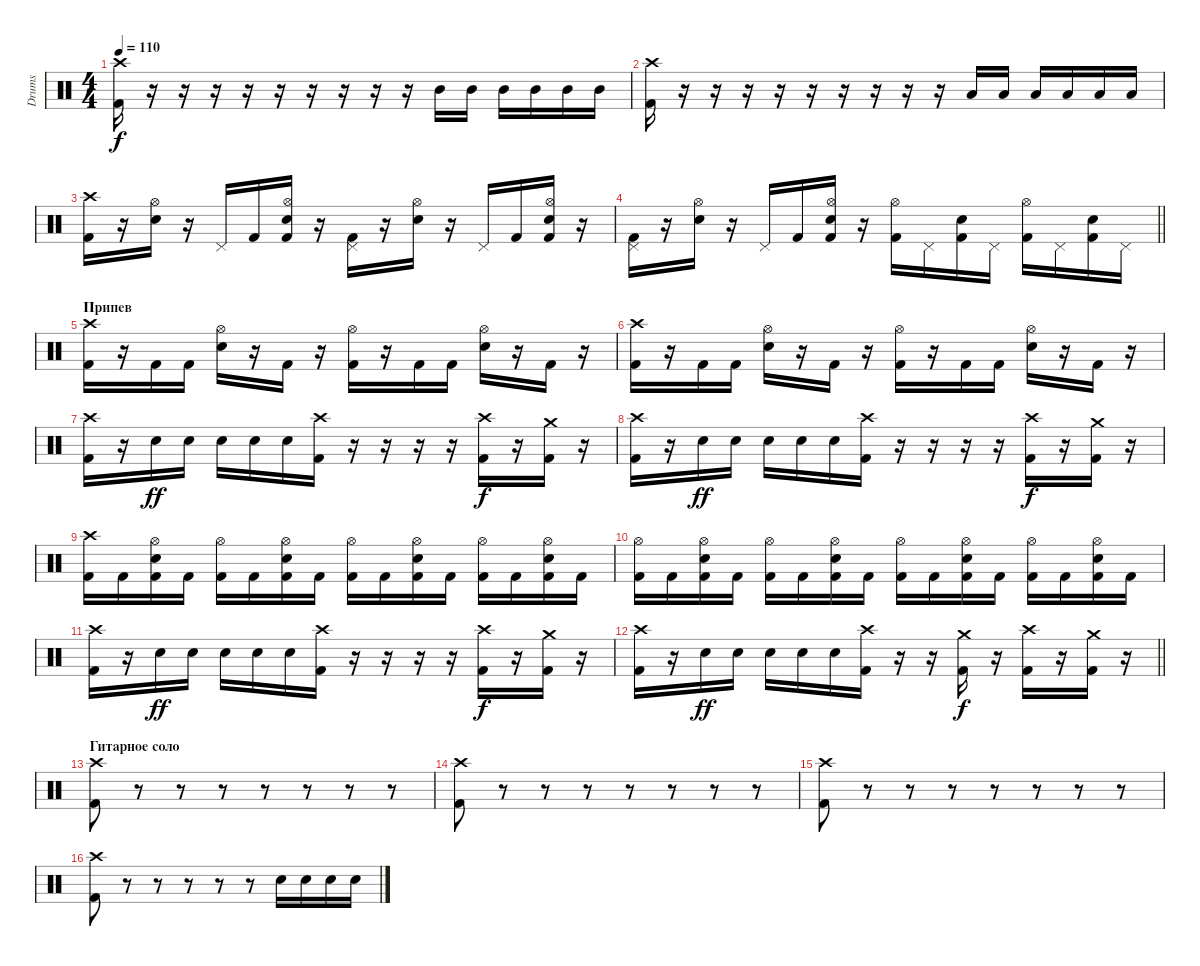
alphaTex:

\track ("Drums" "Drums") {instrument percussion}
\staff {score}
\articulation defaults
\ts (4 4)
\tempo 110
\clef neutral
\ks c
("Crash high (hit)" "Kick (hit) 2").16{dy f} r.16 r.16 r.16 r.16 r.16 r.16 r.16 r.16 r.16 "Mid Tom (hit)".16 "Mid Tom (hit)".16 "Mid Tom (hit)".16 "Mid Tom (hit)".16 "Mid Tom (hit)".16 "Mid Tom (hit)".16 |
("Crash high (hit)" "Kick (hit) 2").16 r.16 r.16 r.16 r.16 r.16 r.16 r.16 r.16 r.16 "Low Tom (hit)".16 "Low Tom (hit)".16 "Low Tom (hit)".16 "Low Tom (hit)".16 "Low Tom (hit)".16 "Low Tom (hit)".16 |
("Crash high (hit)" "Kick (hit) 2").16 r.16 ("Hi-Hat (open)" "Snare (hit) 2").16 r.16 "Pedal Hi-Hat (hit)".16 "Kick (hit) 2".16 ("Hi-Hat (open)" "Snare (hit) 2" "Kick (hit) 2").16 r.16 ("Pedal Hi-Hat (hit)" "Kick (hit) 2").16 r.16 ("Hi-Hat (open)" "Snare (hit) 2").16 r.16 "Pedal Hi-Hat (hit)".16 "Kick (hit) 2".16 ("Hi-Hat (open)" "Snare (hit) 2" "Kick (hit) 2").16 r.16 |
\barLineRight lightlight
("Pedal Hi-Hat (hit)" "Kick (hit) 2").16 r.16 ("Hi-Hat (open)" "Snare (hit) 2").16 r.16 "Pedal Hi-Hat (hit)".16 "Kick (hit) 2".16 ("Hi-Hat (open)" "Snare (hit) 2" "Kick (hit) 2").16 r.16 ("Hi-Hat (open)" "Kick (hit) 2").16 "Pedal Hi-Hat (hit)".16 ("Snare (hit) 2" "Kick (hit) 2").16 "Pedal Hi-Hat (hit)".16 ("Hi-Hat (open)" "Kick (hit) 2").16 "Pedal Hi-Hat (hit)".16 ("Snare (hit) 2" "Kick (hit) 2").16 "Pedal Hi-Hat (hit)".16 |
\section ("" "Припев")
("Crash high (hit)" "Kick (hit) 2").16 r.16 "Kick (hit) 2".16 "Kick (hit) 2".16 ("Hi-Hat (open)" "Snare (hit) 2").16 r.16 "Kick (hit) 2".16 r.16 ("Hi-Hat (open)" "Kick (hit) 2").16 r.16 "Kick (hit) 2".16 "Kick (hit) 2".16 ("Hi-Hat (open)" "Snare (hit) 2").16 r.16 "Kick (hit) 2".16 r.16 |
("Crash high (hit)" "Kick (hit) 2").16 r.16 "Kick (hit) 2".16 "Kick (hit) 2".16 ("Hi-Hat (open)" "Snare (hit) 2").16 r.16 "Kick (hit) 2".16 r.16 ("Hi-Hat (open)" "Kick (hit) 2").16 r.16 "Kick (hit) 2".16 "Kick (hit) 2".16 ("Hi-Hat (open)" "Snare (hit) 2").16 r.16 "Kick (hit) 2".16 r.16 |
("Crash high (hit)" "Kick (hit) 2").16 r.16 "Snare (hit) 2".16{dy ff} "Snare (hit) 2".16 "Snare (hit) 2".16 "Snare (hit) 2".16 "Snare (hit) 2".16 ("Crash high (hit)" "Kick (hit) 2").16 r.16 r.16 r.16 r.16 ("Crash high (hit)" "Kick (hit) 2").16{dy f} r.16 ("Crash medium (hit)" "Kick (hit) 2").16 r.16 |
("Crash high (hit)" "Kick (hit) 2").16 r.16 "Snare (hit) 2".16{dy ff} "Snare (hit) 2".16 "Snare (hit) 2".16 "Snare (hit) 2".16 "Snare (hit) 2".16 ("Crash high (hit)" "Kick (hit) 2").16 r.16 r.16 r.16 r.16 ("Crash high (hit)" "Kick (hit) 2").16{dy f} r.16 ("Crash medium (hit)" "Kick (hit) 2").16 r.16 |
("Kick (hit) 2" "Crash high (hit)").16 "Kick (hit) 2".16 ("Kick (hit) 2" "Snare (hit) 2" "Hi-Hat (open)").16 "Kick (hit) 2".16 ("Kick (hit) 2" "Hi-Hat (open)").16 "Kick (hit) 2".16 ("Kick (hit) 2" "Snare (hit) 2" "Hi-Hat (open)").16 "Kick (hit) 2".16 ("Kick (hit) 2" "Hi-Hat (open)").16 "Kick (hit) 2".16 ("Kick (hit) 2" "Snare (hit) 2" "Hi-Hat (open)").16 "Kick (hit) 2".16 ("Kick (hit) 2" "Hi-Hat (open)").16 "Kick (hit) 2".16 ("Kick (hit) 2" "Snare (hit) 2" "Hi-Hat (open)").16 "Kick (hit) 2".16 |
("Kick (hit) 2" "Hi-Hat (open)").16 "Kick (hit) 2".16 ("Kick (hit) 2" "Snare (hit) 2" "Hi-Hat (open)").16 "Kick (hit) 2".16 ("Kick (hit) 2" "Hi-Hat (open)").16 "Kick (hit) 2".16 ("Kick (hit) 2" "Snare (hit) 2" "Hi-Hat (open)").16 "Kick (hit) 2".16 ("Kick (hit) 2" "Hi-Hat (open)").16 "Kick (hit) 2".16 ("Kick (hit) 2" "Snare (hit) 2" "Hi-Hat (open)").16 "Kick (hit) 2".16 ("Kick (hit) 2" "Hi-Hat (open)").16 "Kick (hit) 2".16 ("Kick (hit) 2" "Snare (hit) 2" "Hi-Hat (open)").16 "Kick (hit) 2".16 |
("Crash high (hit)" "Kick (hit) 2").16 r.16 "Snare (hit) 2".16{dy ff} "Snare (hit) 2".16 "Snare (hit) 2".16 "Snare (hit) 2".16 "Snare (hit) 2".16 ("Crash high (hit)" "Kick (hit) 2").16 r.16 r.16 r.16 r.16 ("Crash high (hit)" "Kick (hit) 2").16{dy f} r.16 ("Crash medium (hit)" "Kick (hit) 2").16 r.16 |
\barLineRight lightlight
("Crash high (hit)" "Kick (hit) 2").16 r.16 "Snare (hit) 2".16{dy ff} "Snare (hit) 2".16 "Snare (hit) 2".16 "Snare (hit) 2".16 "Snare (hit) 2".16 ("Crash high (hit)" "Kick (hit) 2").16 r.16 r.16 ("Crash medium (hit)" "Kick (hit) 2").16{dy f} r.16 ("Crash high (hit)" "Kick (hit) 2").16 r.16 ("Crash medium (hit)" "Kick (hit) 2").16 r.16 |
\section ("" "Гитарное соло")
("Crash high (hit)" "Kick (hit) 2").8 r.8 r.8 r.8 r.8 r.8 r.8 r.8 |
("Crash high (hit)" "Kick (hit) 2").8 r.8 r.8 r.8 r.8 r.8 r.8 r.8 |
("Crash high (hit)" "Kick (hit) 2").8 r.8 r.8 r.8 r.8 r.8 r.8 r.8 |
("Crash high (hit)" "Kick (hit) 2").8 r.8 r.8 r.8 r.8 r.8 "Snare (hit) 2".16 "Snare (hit) 2".16 "Snare (hit) 2".16 "Snare (hit) 2".16
